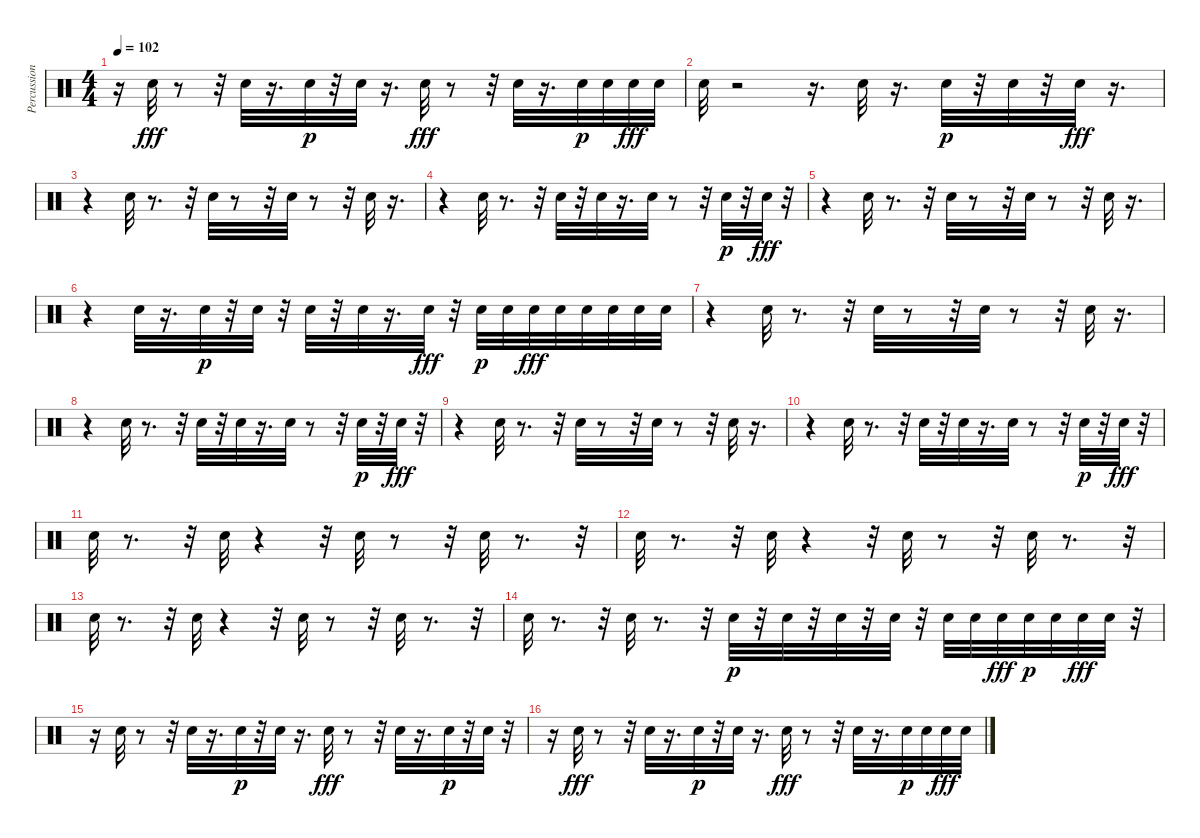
\track ("Percussion" "Percussion") {instrument percussion}
\staff {score}
\articulation defaults
\ts (4 4)
\tempo 102
\clef neutral
\ks c
r.16{dy p} "Snare (hit) 2".32{dy fff} r.8 r.32 "Snare (hit) 2".32 r.16{d} "Snare (hit) 2".32{dy p} r.32 "Snare (hit) 2".32 r.16{d} "Snare (hit) 2".32{dy fff} r.8 r.32 "Snare (hit) 2".32 r.16{d} "Snare (hit) 2".32{dy p} "Snare (hit) 2".32 "Snare (hit) 2".32{dy fff} "Snare (hit) 2".32 |
"Snare (hit) 2".32 r.2 r.16{d} "Snare (hit) 2".32 r.16{d} "Snare (hit) 2".32{dy p} r.32 "Snare (hit) 2".32 r.32 "Snare (hit) 2".32{dy fff} r.16{d} |
r.4 "Snare (hit) 2".32 r.8{d} r.32 "Snare (hit) 2".32 r.8 r.32 "Snare (hit) 2".32 r.8 r.32 "Snare (hit) 2".32 r.16{d} |
r.4 "Snare (hit) 2".32 r.8{d} r.32 "Snare (hit) 2".32 r.32 "Snare (hit) 2".32 r.16{d} "Snare (hit) 2".32 r.8 r.32 "Snare (hit) 2".32{dy p} r.32 "Snare (hit) 2".32{dy fff} r.32 |
r.4 "Snare (hit) 2".32 r.8{d} r.32 "Snare (hit) 2".32 r.8 r.32 "Snare (hit) 2".32 r.8 r.32 "Snare (hit) 2".32 r.16{d} |
r.4 "Snare (hit) 2".32 r.16{d} "Snare (hit) 2".32{dy p} r.32 "Snare (hit) 2".32 r.32 "Snare (hit) 2".32 r.32 "Snare (hit) 2".32 r.16{d} "Snare (hit) 2".32{dy fff} r.32 "Snare (hit) 2".32{dy p} "Snare (hit) 2".32 "Snare (hit) 2".32{dy fff} "Snare (hit) 2".32 "Snare (hit) 2".32 "Snare (hit) 2".32 "Snare (hit) 2".32 "Snare (hit) 2".32 |
r.4 "Snare (hit) 2".32 r.8{d} r.32 "Snare (hit) 2".32 r.8 r.32 "Snare (hit) 2".32 r.8 r.32 "Snare (hit) 2".32 r.16{d} |
r.4 "Snare (hit) 2".32 r.8{d} r.32 "Snare (hit) 2".32 r.32 "Snare (hit) 2".32 r.16{d} "Snare (hit) 2".32 r.8 r.32 "Snare (hit) 2".32{dy p} r.32 "Snare (hit) 2".32{dy fff} r.32 |
r.4 "Snare (hit) 2".32 r.8{d} r.32 "Snare (hit) 2".32 r.8 r.32 "Snare (hit) 2".32 r.8 r.32 "Snare (hit) 2".32 r.16{d} |
r.4 "Snare (hit) 2".32 r.8{d} r.32 "Snare (hit) 2".32 r.32 "Snare (hit) 2".32 r.16{d} "Snare (hit) 2".32 r.8 r.32 "Snare (hit) 2".32{dy p} r.32 "Snare (hit) 2".32{dy fff} r.32 |
"Snare (hit) 2".32 r.8{d} r.32 "Snare (hit) 2".32 r.4 r.32 "Snare (hit) 2".32 r.8 r.32 "Snare (hit) 2".32 r.8{d} r.32 |
"Snare (hit) 2".32 r.8{d} r.32 "Snare (hit) 2".32 r.4 r.32 "Snare (hit) 2".32 r.8 r.32 "Snare (hit) 2".32 r.8{d} r.32 |
"Snare (hit) 2".32 r.8{d} r.32 "Snare (hit) 2".32 r.4 r.32 "Snare (hit) 2".32 r.8 r.32 "Snare (hit) 2".32 r.8{d} r.32 |
"Snare (hit) 2".32 r.8{d} r.32 "Snare (hit) 2".32 r.8{d} r.32 "Snare (hit) 2".32{dy p} r.32 "Snare (hit) 2".32 r.32 "Snare (hit) 2".32 r.32 "Snare (hit) 2".32 r.32 "Snare (hit) 2".32 "Snare (hit) 2".32 "Snare (hit) 2".32{dy fff} "Snare (hit) 2".32{dy p} "Snare (hit) 2".32 "Snare (hit) 2".32{dy fff} "Snare (hit) 2".32 r.32 |
r.16 "Snare (hit) 2".32 r.8 r.32 "Snare (hit) 2".32 r.16{d} "Snare (hit) 2".32{dy p} r.32 "Snare (hit) 2".32 r.16{d} "Snare (hit) 2".32{dy fff} r.8 r.32 "Snare (hit) 2".32 r.16{d} "Snare (hit) 2".32{dy p} r.32 "Snare (hit) 2".32 r.32 |
r.16 "Snare (hit) 2".32{dy fff} r.8 r.32 "Snare (hit) 2".32 r.16{d} "Snare (hit) 2".32{dy p} r.32 "Snare (hit) 2".32 r.16{d} "Snare (hit) 2".32{dy fff} r.8 r.32 "Snare (hit) 2".32 r.16{d} "Snare (hit) 2".32{dy p} "Snare (hit) 2".32 "Snare (hit) 2".32{dy fff} "Snare (hit) 2".32
